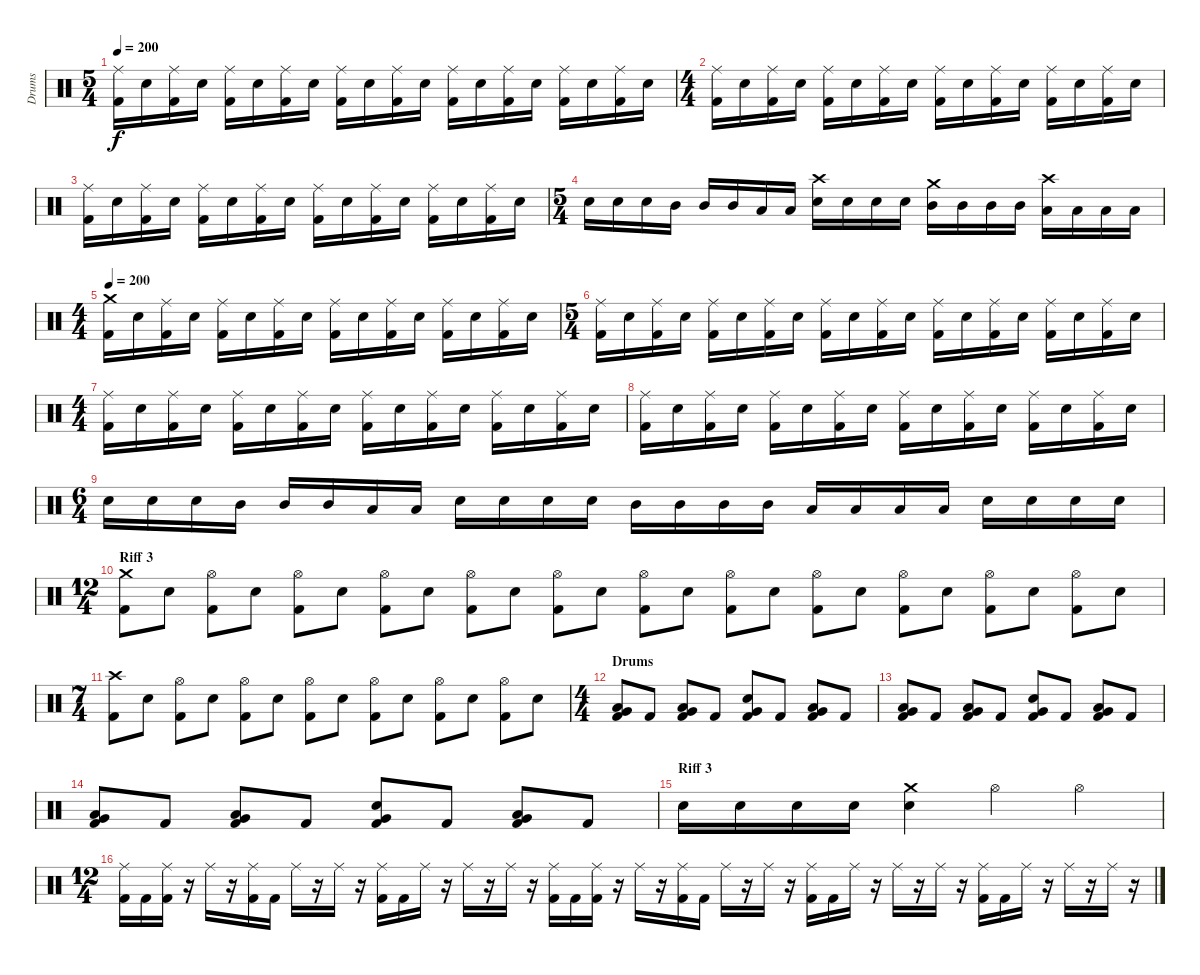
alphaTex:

\track ("Drums" "Drums") {instrument percussion}
\staff {score}
\articulation defaults
\ts (5 4)
\tempo 200
\clef neutral
\ks c
("Ride (middle)" "Kick (hit) 2").16{dy f} "Electric Snare (hit)".16 ("Ride (middle)" "Kick (hit) 2").16 "Electric Snare (hit)".16 ("Ride (middle)" "Kick (hit) 2").16 "Electric Snare (hit)".16 ("Ride (middle)" "Kick (hit) 2").16 "Electric Snare (hit)".16 ("Ride (middle)" "Kick (hit) 2").16 "Electric Snare (hit)".16 ("Ride (middle)" "Kick (hit) 2").16 "Electric Snare (hit)".16 ("Ride (middle)" "Kick (hit) 2").16 "Electric Snare (hit)".16 ("Ride (middle)" "Kick (hit) 2").16 "Electric Snare (hit)".16 ("Ride (middle)" "Kick (hit) 2").16 "Electric Snare (hit)".16 ("Ride (middle)" "Kick (hit) 2").16 "Electric Snare (hit)".16 |
\ts (4 4)
("Ride (middle)" "Kick (hit) 2").16 "Electric Snare (hit)".16 ("Ride (middle)" "Kick (hit) 2").16 "Electric Snare (hit)".16 ("Ride (middle)" "Kick (hit) 2").16 "Electric Snare (hit)".16 ("Ride (middle)" "Kick (hit) 2").16 "Electric Snare (hit)".16 ("Ride (middle)" "Kick (hit) 2").16 "Electric Snare (hit)".16 ("Ride (middle)" "Kick (hit) 2").16 "Electric Snare (hit)".16 ("Ride (middle)" "Kick (hit) 2").16 "Electric Snare (hit)".16 ("Ride (middle)" "Kick (hit) 2").16 "Electric Snare (hit)".16 |
("Ride (middle)" "Kick (hit) 2").16 "Electric Snare (hit)".16 ("Ride (middle)" "Kick (hit) 2").16 "Electric Snare (hit)".16 ("Ride (middle)" "Kick (hit) 2").16 "Electric Snare (hit)".16 ("Ride (middle)" "Kick (hit) 2").16 "Electric Snare (hit)".16 ("Ride (middle)" "Kick (hit) 2").16 "Electric Snare (hit)".16 ("Ride (middle)" "Kick (hit) 2").16 "Electric Snare (hit)".16 ("Ride (middle)" "Kick (hit) 2").16 "Electric Snare (hit)".16 ("Ride (middle)" "Kick (hit) 2").16 "Electric Snare (hit)".16 |
\ts (5 4)
"Electric Snare (hit)".16 "Electric Snare (hit)".16 "Electric Snare (hit)".16 "Mid Tom (hit)".16 "Mid Tom (hit)".16 "Mid Tom (hit)".16 "Low Tom (hit)".16 "Low Tom (hit)".16 ("Crash high (hit)" "Electric Snare (hit)").16 "Electric Snare (hit)".16 "Electric Snare (hit)".16 "Electric Snare (hit)".16 ("Crash medium (hit)" "Mid Tom (hit)").16 "Mid Tom (hit)".16 "Mid Tom (hit)".16 "Mid Tom (hit)".16 ("Crash high (hit)" "Low Tom (hit)").16 "Low Tom (hit)".16 "Low Tom (hit)".16 "Low Tom (hit)".16 |
\ts (4 4)
\tempo 200
("Crash medium (hit)" "Kick (hit) 2").16 "Electric Snare (hit)".16 ("Ride (middle)" "Kick (hit) 2").16 "Electric Snare (hit)".16 ("Ride (middle)" "Kick (hit) 2").16 "Electric Snare (hit)".16 ("Ride (middle)" "Kick (hit) 2").16 "Electric Snare (hit)".16 ("Ride (middle)" "Kick (hit) 2").16 "Electric Snare (hit)".16 ("Ride (middle)" "Kick (hit) 2").16 "Electric Snare (hit)".16 ("Ride (middle)" "Kick (hit) 2").16 "Electric Snare (hit)".16 ("Ride (middle)" "Kick (hit) 2").16 "Electric Snare (hit)".16 |
\ts (5 4)
("Ride (middle)" "Kick (hit) 2").16 "Electric Snare (hit)".16 ("Ride (middle)" "Kick (hit) 2").16 "Electric Snare (hit)".16 ("Ride (middle)" "Kick (hit) 2").16 "Electric Snare (hit)".16 ("Ride (middle)" "Kick (hit) 2").16 "Electric Snare (hit)".16 ("Ride (middle)" "Kick (hit) 2").16 "Electric Snare (hit)".16 ("Ride (middle)" "Kick (hit) 2").16 "Electric Snare (hit)".16 ("Ride (middle)" "Kick (hit) 2").16 "Electric Snare (hit)".16 ("Ride (middle)" "Kick (hit) 2").16 "Electric Snare (hit)".16 ("Ride (middle)" "Kick (hit) 2").16 "Electric Snare (hit)".16 ("Ride (middle)" "Kick (hit) 2").16 "Electric Snare (hit)".16 |
\ts (4 4)
("Ride (middle)" "Kick (hit) 2").16 "Electric Snare (hit)".16 ("Ride (middle)" "Kick (hit) 2").16 "Electric Snare (hit)".16 ("Ride (middle)" "Kick (hit) 2").16 "Electric Snare (hit)".16 ("Ride (middle)" "Kick (hit) 2").16 "Electric Snare (hit)".16 ("Ride (middle)" "Kick (hit) 2").16 "Electric Snare (hit)".16 ("Ride (middle)" "Kick (hit) 2").16 "Electric Snare (hit)".16 ("Ride (middle)" "Kick (hit) 2").16 "Electric Snare (hit)".16 ("Ride (middle)" "Kick (hit) 2").16 "Electric Snare (hit)".16 |
("Ride (middle)" "Kick (hit) 2").16 "Electric Snare (hit)".16 ("Ride (middle)" "Kick (hit) 2").16 "Electric Snare (hit)".16 ("Ride (middle)" "Kick (hit) 2").16 "Electric Snare (hit)".16 ("Ride (middle)" "Kick (hit) 2").16 "Electric Snare (hit)".16 ("Ride (middle)" "Kick (hit) 2").16 "Electric Snare (hit)".16 ("Ride (middle)" "Kick (hit) 2").16 "Electric Snare (hit)".16 ("Ride (middle)" "Kick (hit) 2").16 "Electric Snare (hit)".16 ("Ride (middle)" "Kick (hit) 2").16 "Electric Snare (hit)".16 |
\ts (6 4)
"Electric Snare (hit)".16 "Electric Snare (hit)".16 "Electric Snare (hit)".16 "Mid Tom (hit)".16 "Mid Tom (hit)".16 "Mid Tom (hit)".16 "Low Tom (hit)".16 "Low Tom (hit)".16 "Electric Snare (hit)".16 "Electric Snare (hit)".16 "Electric Snare (hit)".16 "Electric Snare (hit)".16 "Mid Tom (hit)".16 "Mid Tom (hit)".16 "Mid Tom (hit)".16 "Mid Tom (hit)".16 "Low Tom (hit)".16 "Low Tom (hit)".16 "Low Tom (hit)".16 "Low Tom (hit)".16 "Electric Snare (hit)".16 "Electric Snare (hit)".16 "Electric Snare (hit)".16 "Electric Snare (hit)".16 |
\ts (12 4)
\section ("" "Riff 3")
("Crash medium (hit)" "Kick (hit) 2").8 "Electric Snare (hit)".8 ("Hi-Hat (open)" "Kick (hit) 2").8 "Electric Snare (hit)".8 ("Hi-Hat (open)" "Kick (hit) 2").8 "Electric Snare (hit)".8 ("Hi-Hat (open)" "Kick (hit) 2").8 "Electric Snare (hit)".8 ("Hi-Hat (open)" "Kick (hit) 2").8 "Electric Snare (hit)".8 ("Hi-Hat (open)" "Kick (hit) 2").8 "Electric Snare (hit)".8 ("Hi-Hat (open)" "Kick (hit) 2").8 "Electric Snare (hit)".8 ("Hi-Hat (open)" "Kick (hit) 2").8 "Electric Snare (hit)".8 ("Hi-Hat (open)" "Kick (hit) 2").8 "Electric Snare (hit)".8 ("Hi-Hat (open)" "Kick (hit) 2").8 "Electric Snare (hit)".8 ("Hi-Hat (open)" "Kick (hit) 2").8 "Electric Snare (hit)".8 ("Hi-Hat (open)" "Kick (hit) 2").8 "Electric Snare (hit)".8 |
\ts (7 4)
("Crash high (hit)" "Kick (hit) 2").8 "Electric Snare (hit)".8 ("Hi-Hat (open)" "Kick (hit) 2").8 "Electric Snare (hit)".8 ("Hi-Hat (open)" "Kick (hit) 2").8 "Electric Snare (hit)".8 ("Hi-Hat (open)" "Kick (hit) 2").8 "Electric Snare (hit)".8 ("Hi-Hat (open)" "Kick (hit) 2").8 "Electric Snare (hit)".8 ("Hi-Hat (open)" "Kick (hit) 2").8 "Electric Snare (hit)".8 ("Hi-Hat (open)" "Kick (hit) 2").8 "Electric Snare (hit)".8 |
\ts (4 4)
\section ("" "Drums")
("Low Tom (hit)" "Very Low Tom (hit)" "Kick (hit) 2").8 "Kick (hit) 2".8 ("Low Tom (hit)" "Very Low Tom (hit)" "Kick (hit) 2").8 "Kick (hit) 2".8 ("Very Low Tom (hit)" "Electric Snare (hit)" "Kick (hit) 2").8 "Kick (hit) 2".8 ("Low Tom (hit)" "Very Low Tom (hit)" "Kick (hit) 2").8 "Kick (hit) 2".8 |
("Low Tom (hit)" "Very Low Tom (hit)" "Kick (hit) 2").8 "Kick (hit) 2".8 ("Low Tom (hit)" "Very Low Tom (hit)" "Kick (hit) 2").8 "Kick (hit) 2".8 ("Very Low Tom (hit)" "Electric Snare (hit)" "Kick (hit) 2").8 "Kick (hit) 2".8 ("Low Tom (hit)" "Very Low Tom (hit)" "Kick (hit) 2").8 "Kick (hit) 2".8 |
("Low Tom (hit)" "Very Low Tom (hit)" "Kick (hit) 2").8 "Kick (hit) 2".8 ("Low Tom (hit)" "Very Low Tom (hit)" "Kick (hit) 2").8 "Kick (hit) 2".8 ("Very Low Tom (hit)" "Electric Snare (hit)" "Kick (hit) 2").8 "Kick (hit) 2".8 ("Low Tom (hit)" "Very Low Tom (hit)" "Kick (hit) 2").8 "Kick (hit) 2".8 |
\section ("" "Riff 3")
"Electric Snare (hit)".16 "Electric Snare (hit)".16 "Electric Snare (hit)".16 "Electric Snare (hit)".16 ("Crash medium (hit)" "Electric Snare (hit)").4 "Hi-Hat (open)".4 "Hi-Hat (open)".4 |
\ts (12 4)
("Ride (middle)" "Kick (hit) 2").16 "Kick (hit) 2".16 ("Ride (middle)" "Kick (hit) 2").16 r.16 "Ride (middle)".16 r.16 ("Ride (middle)" "Kick (hit) 2").16 "Kick (hit) 2".16 "Ride (middle)".16 r.16 "Ride (middle)".16 r.16 ("Ride (middle)" "Kick (hit) 2").16 "Kick (hit) 2".16 "Ride (middle)".16 r.16 "Ride (middle)".16 r.16 "Ride (middle)".16 r.16 ("Ride (middle)" "Kick (hit) 2").16 "Kick (hit) 2".16 ("Ride (middle)" "Kick (hit) 2").16 r.16 "Ride (middle)".16 r.16 ("Ride (middle)" "Kick (hit) 2").16 "Kick (hit) 2".16 "Ride (middle)".16 r.16 "Ride (middle)".16 r.16 ("Ride (middle)" "Kick (hit) 2").16 "Kick (hit) 2".16 "Ride (middle)".16 r.16 "Ride (middle)".16 r.16 "Ride (middle)".16 r.16 ("Ride (middle)" "Kick (hit) 2").16 "Kick (hit) 2".16 "Ride (middle)".16 r.16 "Ride (middle)".16 r.16 "Ride (middle)".16 r.16
